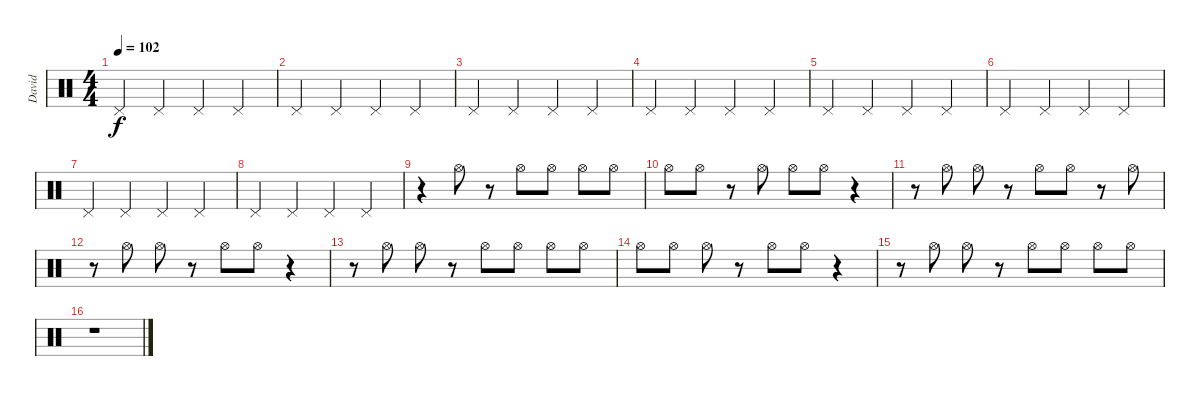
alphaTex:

\track ("David" "David") {instrument percussion}
\staff {score}
\articulation defaults
\ts (4 4)
\tempo 102
\clef neutral
\ks c "Pedal Hi-Hat (hit)".4{dy f} "Pedal Hi-Hat (hit)".4 "Pedal Hi-Hat (hit)".4 "Pedal Hi-Hat (hit)".4
|
"Pedal Hi-Hat (hit)".4 "Pedal Hi-Hat (hit)".4 "Pedal Hi-Hat (hit)".4 "Pedal Hi-Hat (hit)".4 |
"Pedal Hi-Hat (hit)".4 "Pedal Hi-Hat (hit)".4 "Pedal Hi-Hat (hit)".4 "Pedal Hi-Hat (hit)".4 |
"Pedal Hi-Hat (hit)".4 "Pedal Hi-Hat (hit)".4 "Pedal Hi-Hat (hit)".4 "Pedal Hi-Hat (hit)".4 |
"Pedal Hi-Hat (hit)".4 "Pedal Hi-Hat (hit)".4 "Pedal Hi-Hat (hit)".4 "Pedal Hi-Hat (hit)".4 |
"Pedal Hi-Hat (hit)".4 "Pedal Hi-Hat (hit)".4 "Pedal Hi-Hat (hit)".4 "Pedal Hi-Hat (hit)".4 |
"Pedal Hi-Hat (hit)".4 "Pedal Hi-Hat (hit)".4 "Pedal Hi-Hat (hit)".4 "Pedal Hi-Hat (hit)".4 |
"Pedal Hi-Hat (hit)".4 "Pedal Hi-Hat (hit)".4 "Pedal Hi-Hat (hit)".4 "Pedal Hi-Hat (hit)".4 |
r.4 "Hi-Hat (open)".8 r.8 "Hi-Hat (open)".8 "Hi-Hat (open)".8 "Hi-Hat (open)".8 "Hi-Hat (open)".8 |
"Hi-Hat (open)".8 "Hi-Hat (open)".8 r.8 "Hi-Hat (open)".8 "Hi-Hat (open)".8 "Hi-Hat (open)".8 r.4 |
r.8 "Hi-Hat (open)".8 "Hi-Hat (open)".8 r.8 "Hi-Hat (open)".8 "Hi-Hat (open)".8 r.8 "Hi-Hat (open)".8 |
r.8 "Hi-Hat (open)".8 "Hi-Hat (open)".8 r.8 "Hi-Hat (open)".8 "Hi-Hat (open)".8 r.4 |
r.8 "Hi-Hat (open)".8 "Hi-Hat (open)".8 r.8 "Hi-Hat (open)".8 "Hi-Hat (open)".8 "Hi-Hat (open)".8 "Hi-Hat (open)".8 |
"Hi-Hat (open)".8 "Hi-Hat (open)".8 "Hi-Hat (open)".8 r.8 "Hi-Hat (open)".8 "Hi-Hat (open)".8 r.4 |
r.8 "Hi-Hat (open)".8 "Hi-Hat (open)".8 r.8 "Hi-Hat (open)".8 "Hi-Hat (open)".8 "Hi-Hat (open)".8 "Hi-Hat (open)".8 |
r.1
